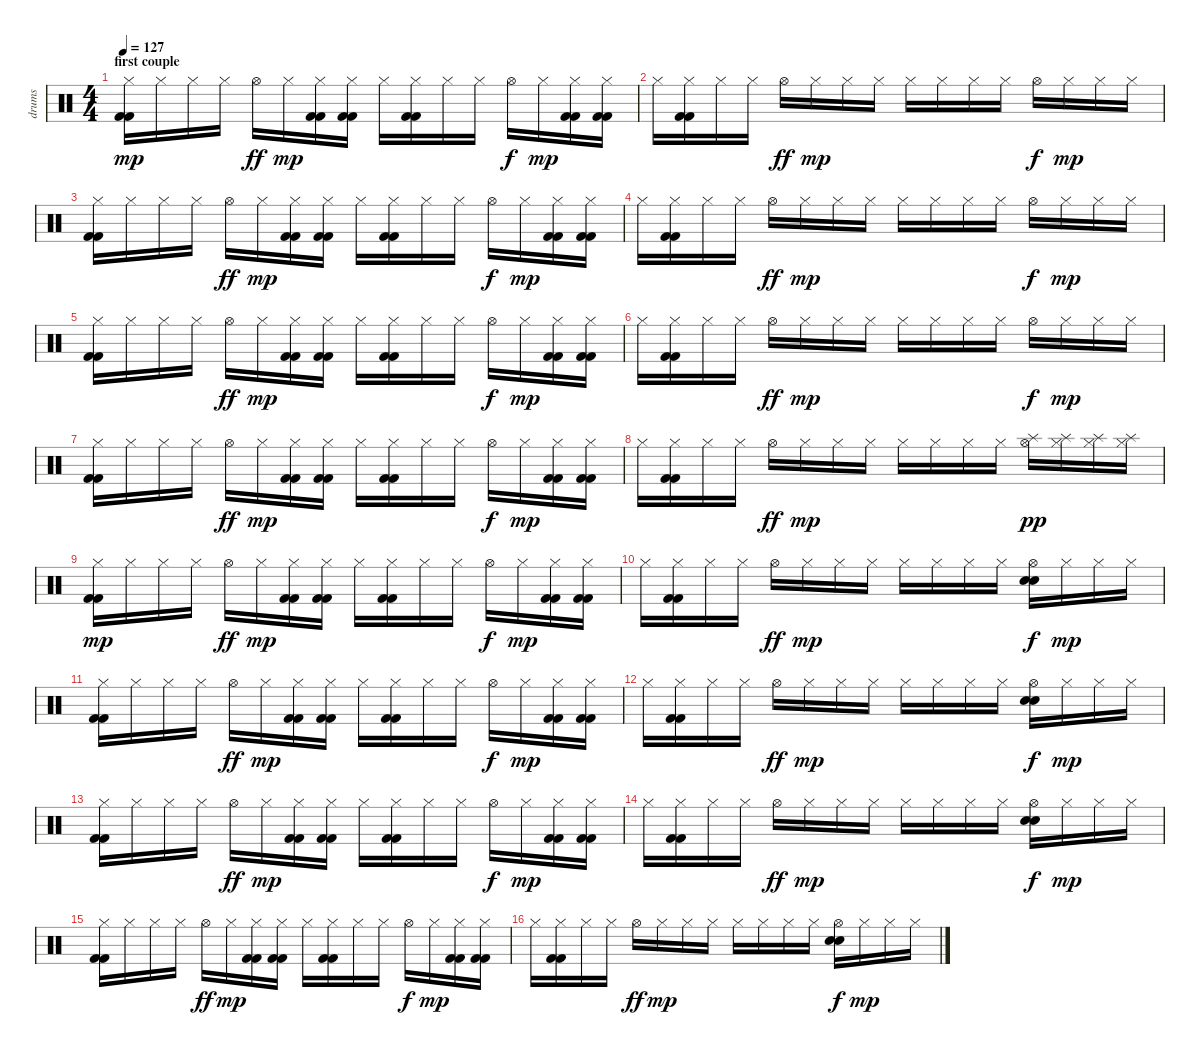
\track ("drums" "drums") {instrument percussion}
\staff {score}
\articulation defaults
\ts (4 4)
\section ("" "first couple")
\tempo 127
\clef neutral
\ks c
("Hi-Hat (closed)" "Kick (hit) 2" "Kick (hit) 2").16{dy mp} "Hi-Hat (closed)".16 "Hi-Hat (closed)".16 "Hi-Hat (closed)".16 "Hi-Hat (open)".16{dy ff} "Hi-Hat (closed)".16{dy mp} ("Hi-Hat (closed)" "Kick (hit) 2" "Kick (hit) 2").16 ("Hi-Hat (closed)" "Kick (hit) 2" "Kick (hit) 2").16 "Hi-Hat (closed)".16 ("Hi-Hat (closed)" "Kick (hit) 2" "Kick (hit) 2").16 "Hi-Hat (closed)".16 "Hi-Hat (closed)".16 "Hi-Hat (open)".16{dy f} "Hi-Hat (closed)".16{dy mp} ("Hi-Hat (closed)" "Kick (hit) 2" "Kick (hit) 2").16 ("Hi-Hat (closed)" "Kick (hit) 2" "Kick (hit) 2").16 |
"Hi-Hat (closed)".16 ("Hi-Hat (closed)" "Kick (hit) 2" "Kick (hit) 2").16 "Hi-Hat (closed)".16 "Hi-Hat (closed)".16 "Hi-Hat (open)".16{dy ff} "Hi-Hat (closed)".16{dy mp} "Hi-Hat (closed)".16 "Hi-Hat (closed)".16 "Hi-Hat (closed)".16 "Hi-Hat (closed)".16 "Hi-Hat (closed)".16 "Hi-Hat (closed)".16 "Hi-Hat (open)".16{dy f} "Hi-Hat (closed)".16{dy mp} "Hi-Hat (closed)".16 "Hi-Hat (closed)".16 |
("Hi-Hat (closed)" "Kick (hit) 2" "Kick (hit) 2").16 "Hi-Hat (closed)".16 "Hi-Hat (closed)".16 "Hi-Hat (closed)".16 "Hi-Hat (open)".16{dy ff} "Hi-Hat (closed)".16{dy mp} ("Hi-Hat (closed)" "Kick (hit) 2" "Kick (hit) 2").16 ("Hi-Hat (closed)" "Kick (hit) 2" "Kick (hit) 2").16 "Hi-Hat (closed)".16 ("Hi-Hat (closed)" "Kick (hit) 2" "Kick (hit) 2").16 "Hi-Hat (closed)".16 "Hi-Hat (closed)".16 "Hi-Hat (open)".16{dy f} "Hi-Hat (closed)".16{dy mp} ("Hi-Hat (closed)" "Kick (hit) 2" "Kick (hit) 2").16 ("Hi-Hat (closed)" "Kick (hit) 2" "Kick (hit) 2").16 |
"Hi-Hat (closed)".16 ("Hi-Hat (closed)" "Kick (hit) 2" "Kick (hit) 2").16 "Hi-Hat (closed)".16 "Hi-Hat (closed)".16 "Hi-Hat (open)".16{dy ff} "Hi-Hat (closed)".16{dy mp} "Hi-Hat (closed)".16 "Hi-Hat (closed)".16 "Hi-Hat (closed)".16 "Hi-Hat (closed)".16 "Hi-Hat (closed)".16 "Hi-Hat (closed)".16 "Hi-Hat (open)".16{dy f} "Hi-Hat (closed)".16{dy mp} "Hi-Hat (closed)".16 "Hi-Hat (closed)".16 |
("Hi-Hat (closed)" "Kick (hit) 2" "Kick (hit) 2").16 "Hi-Hat (closed)".16 "Hi-Hat (closed)".16 "Hi-Hat (closed)".16 "Hi-Hat (open)".16{dy ff} "Hi-Hat (closed)".16{dy mp} ("Hi-Hat (closed)" "Kick (hit) 2" "Kick (hit) 2").16 ("Hi-Hat (closed)" "Kick (hit) 2" "Kick (hit) 2").16 "Hi-Hat (closed)".16 ("Hi-Hat (closed)" "Kick (hit) 2" "Kick (hit) 2").16 "Hi-Hat (closed)".16 "Hi-Hat (closed)".16 "Hi-Hat (open)".16{dy f} "Hi-Hat (closed)".16{dy mp} ("Hi-Hat (closed)" "Kick (hit) 2" "Kick (hit) 2").16 ("Hi-Hat (closed)" "Kick (hit) 2" "Kick (hit) 2").16 |
"Hi-Hat (closed)".16 ("Hi-Hat (closed)" "Kick (hit) 2" "Kick (hit) 2").16 "Hi-Hat (closed)".16 "Hi-Hat (closed)".16 "Hi-Hat (open)".16{dy ff} "Hi-Hat (closed)".16{dy mp} "Hi-Hat (closed)".16 "Hi-Hat (closed)".16 "Hi-Hat (closed)".16 "Hi-Hat (closed)".16 "Hi-Hat (closed)".16 "Hi-Hat (closed)".16 "Hi-Hat (open)".16{dy f} "Hi-Hat (closed)".16{dy mp} "Hi-Hat (closed)".16 "Hi-Hat (closed)".16 |
("Hi-Hat (closed)" "Kick (hit) 2" "Kick (hit) 2").16 "Hi-Hat (closed)".16 "Hi-Hat (closed)".16 "Hi-Hat (closed)".16 "Hi-Hat (open)".16{dy ff} "Hi-Hat (closed)".16{dy mp} ("Hi-Hat (closed)" "Kick (hit) 2" "Kick (hit) 2").16 ("Hi-Hat (closed)" "Kick (hit) 2" "Kick (hit) 2").16 "Hi-Hat (closed)".16 ("Hi-Hat (closed)" "Kick (hit) 2" "Kick (hit) 2").16 "Hi-Hat (closed)".16 "Hi-Hat (closed)".16 "Hi-Hat (open)".16{dy f} "Hi-Hat (closed)".16{dy mp} ("Hi-Hat (closed)" "Kick (hit) 2" "Kick (hit) 2").16 ("Hi-Hat (closed)" "Kick (hit) 2" "Kick (hit) 2").16 |
"Hi-Hat (closed)".16 ("Hi-Hat (closed)" "Kick (hit) 2" "Kick (hit) 2").16 "Hi-Hat (closed)".16 "Hi-Hat (closed)".16 "Hi-Hat (open)".16{dy ff} "Hi-Hat (closed)".16{dy mp} "Hi-Hat (closed)".16 "Hi-Hat (closed)".16 "Hi-Hat (closed)".16 "Hi-Hat (closed)".16 "Hi-Hat (closed)".16 "Hi-Hat (closed)".16 ("Hi-Hat (open)" "Splash (hit)").16{dy pp} ("Hi-Hat (closed)" "Splash (hit)").16 ("Hi-Hat (closed)" "Splash (hit)").16 ("Hi-Hat (closed)" "Splash (hit)").16 |
("Hi-Hat (closed)" "Kick (hit) 2" "Kick (hit) 2").16{dy mp} "Hi-Hat (closed)".16 "Hi-Hat (closed)".16 "Hi-Hat (closed)".16 "Hi-Hat (open)".16{dy ff} "Hi-Hat (closed)".16{dy mp} ("Hi-Hat (closed)" "Kick (hit) 2" "Kick (hit) 2").16 ("Hi-Hat (closed)" "Kick (hit) 2" "Kick (hit) 2").16 "Hi-Hat (closed)".16 ("Hi-Hat (closed)" "Kick (hit) 2" "Kick (hit) 2").16 "Hi-Hat (closed)".16 "Hi-Hat (closed)".16 "Hi-Hat (open)".16{dy f} "Hi-Hat (closed)".16{dy mp} ("Hi-Hat (closed)" "Kick (hit) 2" "Kick (hit) 2").16 ("Hi-Hat (closed)" "Kick (hit) 2" "Kick (hit) 2").16 |
"Hi-Hat (closed)".16 ("Hi-Hat (closed)" "Kick (hit) 2" "Kick (hit) 2").16 "Hi-Hat (closed)".16 "Hi-Hat (closed)".16 "Hi-Hat (open)".16{dy ff} "Hi-Hat (closed)".16{dy mp} "Hi-Hat (closed)".16 "Hi-Hat (closed)".16 "Hi-Hat (closed)".16 "Hi-Hat (closed)".16 "Hi-Hat (closed)".16 "Hi-Hat (closed)".16 ("Hi-Hat (open)" "Electric Snare (hit)" "Electric Snare (hit)").16{dy f} "Hi-Hat (closed)".16{dy mp} "Hi-Hat (closed)".16 "Hi-Hat (closed)".16 |
("Hi-Hat (closed)" "Kick (hit) 2" "Kick (hit) 2").16 "Hi-Hat (closed)".16 "Hi-Hat (closed)".16 "Hi-Hat (closed)".16 "Hi-Hat (open)".16{dy ff} "Hi-Hat (closed)".16{dy mp} ("Hi-Hat (closed)" "Kick (hit) 2" "Kick (hit) 2").16 ("Hi-Hat (closed)" "Kick (hit) 2" "Kick (hit) 2").16 "Hi-Hat (closed)".16 ("Hi-Hat (closed)" "Kick (hit) 2" "Kick (hit) 2").16 "Hi-Hat (closed)".16 "Hi-Hat (closed)".16 "Hi-Hat (open)".16{dy f} "Hi-Hat (closed)".16{dy mp} ("Hi-Hat (closed)" "Kick (hit) 2" "Kick (hit) 2").16 ("Hi-Hat (closed)" "Kick (hit) 2" "Kick (hit) 2").16 |
"Hi-Hat (closed)".16 ("Hi-Hat (closed)" "Kick (hit) 2" "Kick (hit) 2").16 "Hi-Hat (closed)".16 "Hi-Hat (closed)".16 "Hi-Hat (open)".16{dy ff} "Hi-Hat (closed)".16{dy mp} "Hi-Hat (closed)".16 "Hi-Hat (closed)".16 "Hi-Hat (closed)".16 "Hi-Hat (closed)".16 "Hi-Hat (closed)".16 "Hi-Hat (closed)".16 ("Hi-Hat (open)" "Electric Snare (hit)" "Electric Snare (hit)").16{dy f} "Hi-Hat (closed)".16{dy mp} "Hi-Hat (closed)".16 "Hi-Hat (closed)".16 |
("Hi-Hat (closed)" "Kick (hit) 2" "Kick (hit) 2").16 "Hi-Hat (closed)".16 "Hi-Hat (closed)".16 "Hi-Hat (closed)".16 "Hi-Hat (open)".16{dy ff} "Hi-Hat (closed)".16{dy mp} ("Hi-Hat (closed)" "Kick (hit) 2" "Kick (hit) 2").16 ("Hi-Hat (closed)" "Kick (hit) 2" "Kick (hit) 2").16 "Hi-Hat (closed)".16 ("Hi-Hat (closed)" "Kick (hit) 2" "Kick (hit) 2").16 "Hi-Hat (closed)".16 "Hi-Hat (closed)".16 "Hi-Hat (open)".16{dy f} "Hi-Hat (closed)".16{dy mp} ("Hi-Hat (closed)" "Kick (hit) 2" "Kick (hit) 2").16 ("Hi-Hat (closed)" "Kick (hit) 2" "Kick (hit) 2").16 |
"Hi-Hat (closed)".16 ("Hi-Hat (closed)" "Kick (hit) 2" "Kick (hit) 2").16 "Hi-Hat (closed)".16 "Hi-Hat (closed)".16 "Hi-Hat (open)".16{dy ff} "Hi-Hat (closed)".16{dy mp} "Hi-Hat (closed)".16 "Hi-Hat (closed)".16 "Hi-Hat (closed)".16 "Hi-Hat (closed)".16 "Hi-Hat (closed)".16 "Hi-Hat (closed)".16 ("Hi-Hat (open)" "Electric Snare (hit)" "Electric Snare (hit)").16{dy f} "Hi-Hat (closed)".16{dy mp} "Hi-Hat (closed)".16 "Hi-Hat (closed)".16 |
("Hi-Hat (closed)" "Kick (hit) 2" "Kick (hit) 2").16 "Hi-Hat (closed)".16 "Hi-Hat (closed)".16 "Hi-Hat (closed)".16 "Hi-Hat (open)".16{dy ff} "Hi-Hat (closed)".16{dy mp} ("Hi-Hat (closed)" "Kick (hit) 2" "Kick (hit) 2").16 ("Hi-Hat (closed)" "Kick (hit) 2" "Kick (hit) 2").16 "Hi-Hat (closed)".16 ("Hi-Hat (closed)" "Kick (hit) 2" "Kick (hit) 2").16 "Hi-Hat (closed)".16 "Hi-Hat (closed)".16 "Hi-Hat (open)".16{dy f} "Hi-Hat (closed)".16{dy mp} ("Hi-Hat (closed)" "Kick (hit) 2" "Kick (hit) 2").16 ("Hi-Hat (closed)" "Kick (hit) 2" "Kick (hit) 2").16 |
"Hi-Hat (closed)".16 ("Hi-Hat (closed)" "Kick (hit) 2" "Kick (hit) 2").16 "Hi-Hat (closed)".16 "Hi-Hat (closed)".16 "Hi-Hat (open)".16{dy ff} "Hi-Hat (closed)".16{dy mp} "Hi-Hat (closed)".16 "Hi-Hat (closed)".16 "Hi-Hat (closed)".16 "Hi-Hat (closed)".16 "Hi-Hat (closed)".16 "Hi-Hat (closed)".16 ("Hi-Hat (open)" "Electric Snare (hit)" "Electric Snare (hit)").16{dy f} "Hi-Hat (closed)".16{dy mp} "Hi-Hat (closed)".16 "Hi-Hat (closed)".16
